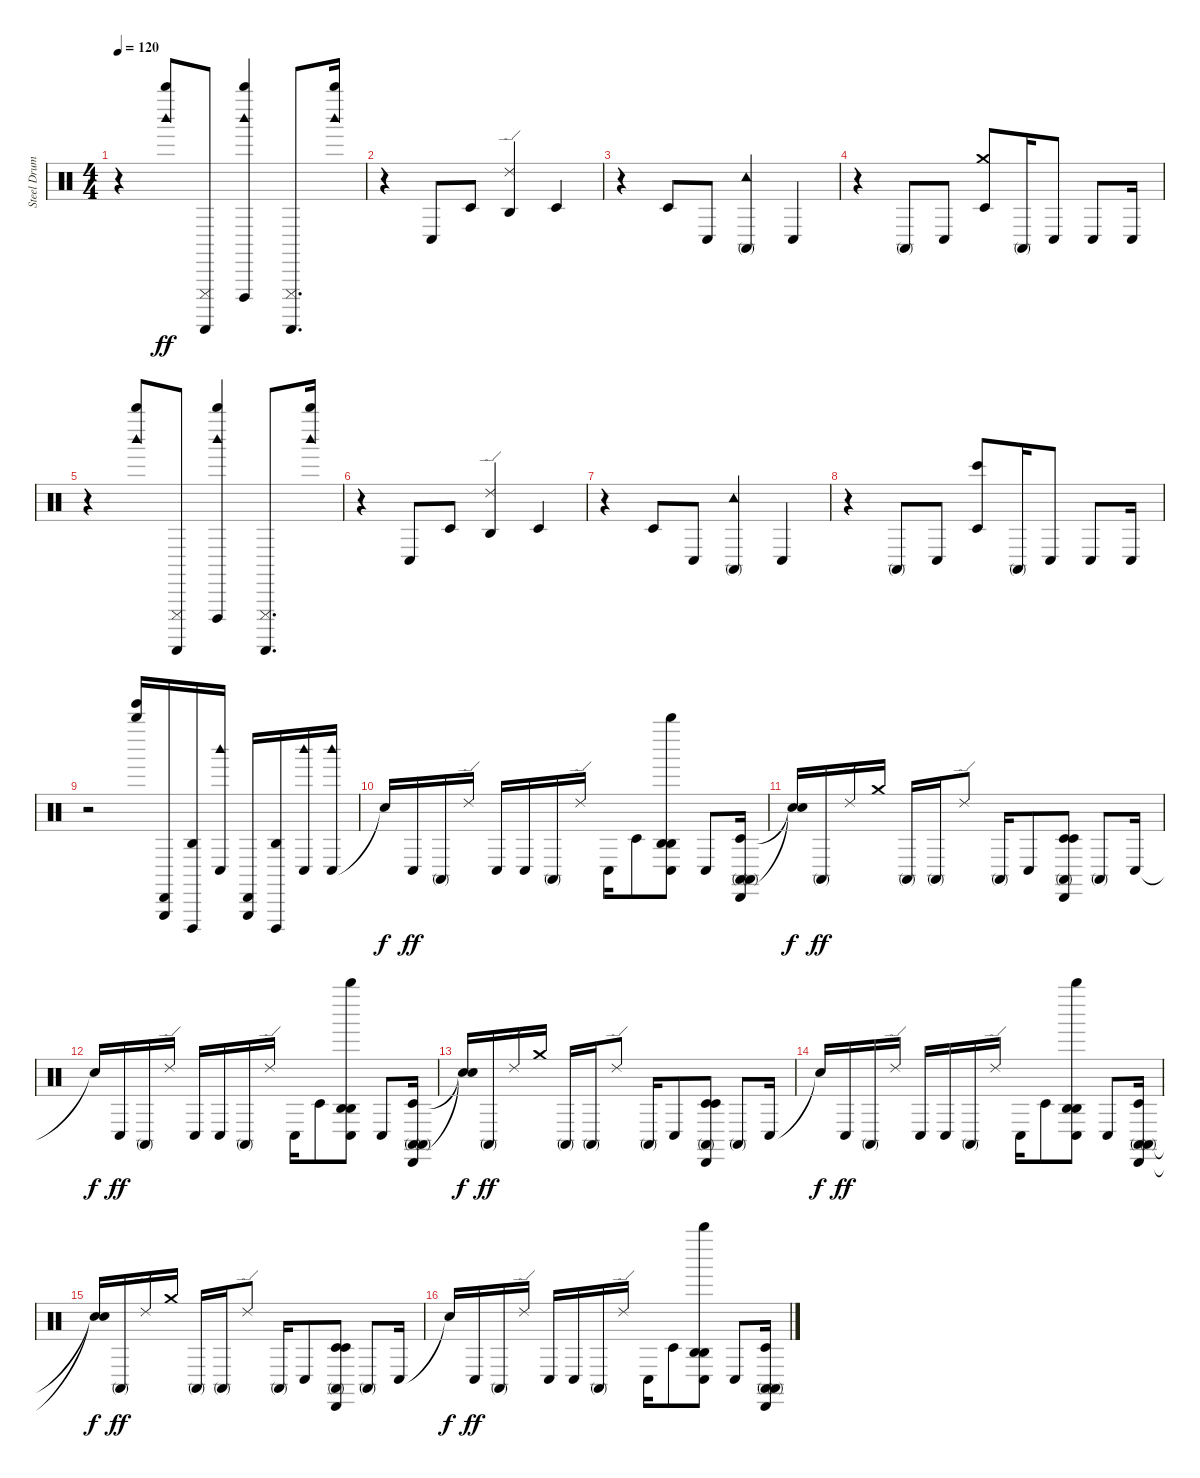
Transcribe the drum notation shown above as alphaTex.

\track ("Steel Drums" "Steel Drum") {instrument percussion}
\staff {score}
\articulation defaults
\ts (4 4)
\tempo 120
\clef neutral
\ks c
r.4{dy ff} ("Woodblock high (hit)" "Whistle high (hit)").8 ("Guiro (scrap-return)" "Cuica (mute)").8 ("Woodblock high (hit)" "Whistle high (hit)" "Cuica (open)").4 ("Cuica (mute)" "Guiro (scrap-return)").8{d} ("Woodblock high (hit)" "Whistle high (hit)").16 |
r.4 "Conga low (hit)".8 "Timbale low (hit)".8 ("Agogo high (hit)" "Ride (edge) 2").4 "Timbale low (hit)".4 |
r.4 "Timbale low (hit)".8 "Conga low (hit)".8 ("Tambourine (hit)" "Conga high (mute)").4 "Conga low (hit)".4 |
r.4 "Conga high (mute)".8 "Conga low (hit)".8 ("Timbale low (hit)" "Crash medium (hit)").8 "Conga high (mute)".16 "Conga low (hit)".8 "Conga low (hit)".8 "Conga low (hit)".16 |
r.4 ("Whistle high (hit)" "Woodblock high (hit)").8 ("Cuica (mute)" "Guiro (scrap-return)").8 ("Woodblock high (hit)" "Cuica (open)" "Whistle high (hit)").4 ("Cuica (mute)" "Guiro (scrap-return)").8{d} ("Woodblock high (hit)" "Whistle high (hit)").16 |
r.4 "Conga low (hit)".8 "Timbale low (hit)".8 ("Agogo high (hit)" "Ride (edge) 2").4 "Timbale low (hit)".4 |
r.4 "Timbale low (hit)".8 "Conga low (hit)".8 ("Conga high (mute)" "Tambourine (hit)").4 "Conga low (hit)".4 |
r.4 "Conga high (mute)".8 "Conga low (hit)".8 ("Bongo High (hit)" "Timbale low (hit)").8 "Conga high (mute)".16 "Conga low (hit)".8 "Conga low (hit)".8 "Conga low (hit)".16 |
r.2 ("Whistle high (hit)" "Tinkle Bell (hit)").16 ("Triangle (hit)" "Cabasa (hit)").16 ("Agogo high (hit)" "Cuica (open)").16 ("Woodblock high (hit)" "Conga low (hit)").16 ("Cabasa (hit)" "Triangle (hit)").16 ("Agogo high (hit)" "Cuica (open)").16 ("Woodblock high (hit)" "Conga low (hit)").16 ("Conga low (hit)" "Woodblock high (hit)").16 |
"Snare (hit)"{t}.16{dy f} "Conga low (hit)".16{dy ff} "Conga high (mute)".16 "Ride (edge) 2".16 "Conga low (hit)".16 "Conga low (hit)".16 "Conga high (mute)".16 "Ride (edge) 2".16 "Conga low (hit)".16 "Timbale low (hit)".8 ("Conga low (hit)" "Whistle high (hit)" "Agogo high (hit)" "Agogo high (hit)").8 "Conga low (hit)".8 ("Conga high (mute)" "Timbale low (hit)" "Conga high (mute)" "Cabasa (hit)").16 |
("Snare (hit)"{t} "Snare (hit)"{t}).16{dy f} "Conga high (mute)".16{dy ff} "Ride (edge) 2".16 "Crash medium (hit)".16 "Conga high (mute)".16 "Conga high (mute)".16 "Ride (edge) 2".8 "Conga high (mute)".16 "Conga low (hit)".8 ("Timbale low (hit)" "Timbale low (hit)" "Conga high (mute)" "Cabasa (hit)").8 "Conga high (mute)".8 "Conga low (hit)".16 |
"Snare (hit)"{t}.16{dy f} "Conga low (hit)".16{dy ff} "Conga high (mute)".16 "Ride (edge) 2".16 "Conga low (hit)".16 "Conga low (hit)".16 "Conga high (mute)".16 "Ride (edge) 2".16 "Conga low (hit)".16 "Timbale low (hit)".8 ("Agogo high (hit)" "Conga low (hit)" "Whistle high (hit)" "Agogo high (hit)").8 "Conga low (hit)".8 ("Timbale low (hit)" "Conga high (mute)" "Cabasa (hit)" "Conga high (mute)").16 |
("Snare (hit)"{t} "Snare (hit)"{t}).16{dy f} "Conga high (mute)".16{dy ff} "Ride (edge) 2".16 "Crash medium (hit)".16 "Conga high (mute)".16 "Conga high (mute)".16 "Ride (edge) 2".8 "Conga high (mute)".16 "Conga low (hit)".8 ("Timbale low (hit)" "Conga high (mute)" "Cabasa (hit)" "Timbale low (hit)").8 "Conga high (mute)".8 "Conga low (hit)".16 |
"Snare (hit)"{t}.16{dy f} "Conga low (hit)".16{dy ff} "Conga high (mute)".16 "Ride (edge) 2".16 "Conga low (hit)".16 "Conga low (hit)".16 "Conga high (mute)".16 "Ride (edge) 2".16 "Conga low (hit)".16 "Timbale low (hit)".8 ("Agogo high (hit)" "Conga low (hit)" "Whistle high (hit)" "Agogo high (hit)").8 "Conga low (hit)".8 ("Cabasa (hit)" "Conga high (mute)" "Timbale low (hit)" "Conga high (mute)").16 |
("Snare (hit)"{t} "Snare (hit)"{t}).16{dy f} "Conga high (mute)".16{dy ff} "Ride (edge) 2".16 "Crash medium (hit)".16 "Conga high (mute)".16 "Conga high (mute)".16 "Ride (edge) 2".8 "Conga high (mute)".16 "Conga low (hit)".8 ("Conga high (mute)" "Timbale low (hit)" "Timbale low (hit)" "Cabasa (hit)").8 "Conga high (mute)".8 "Conga low (hit)".16 |
"Snare (hit)"{t}.16{dy f} "Conga low (hit)".16{dy ff} "Conga high (mute)".16 "Ride (edge) 2".16 "Conga low (hit)".16 "Conga low (hit)".16 "Conga high (mute)".16 "Ride (edge) 2".16 "Conga low (hit)".16 "Timbale low (hit)".8 ("Agogo high (hit)" "Whistle high (hit)" "Agogo high (hit)" "Conga low (hit)").8 "Conga low (hit)".8 ("Conga high (mute)" "Timbale low (hit)" "Conga high (mute)" "Cabasa (hit)").16
